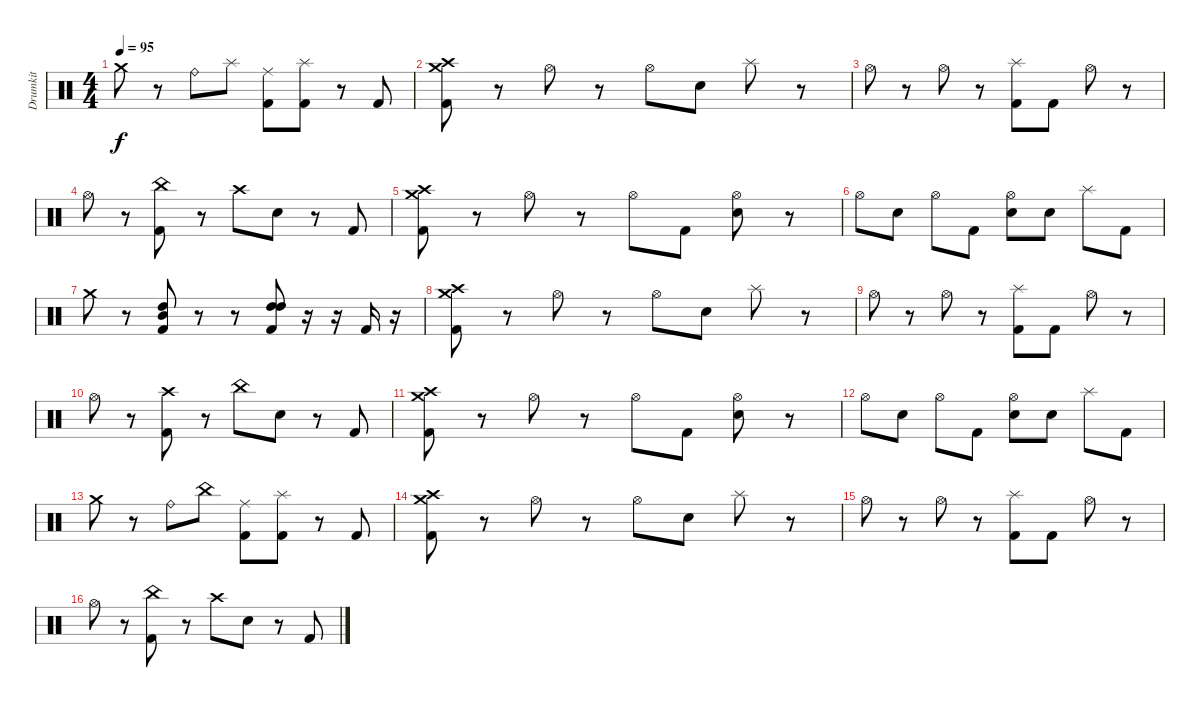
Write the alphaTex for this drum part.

\track ("Drumkit" "Drumkit") {instrument percussion}
\staff {score}
\articulation defaults
\ts (4 4)
\tempo 95
\clef neutral
\ks c "Crash medium (hit)".8{dy f}
r.8 "Ride (bell)".8 "Splash (hit)".8 ("Ride (middle)" "Kick (hit) 2").8 ("Splash (hit)" "Kick (hit) 2").8 r.8 "Kick (hit) 2".8 |
("Crash medium (hit)" "Crash high (hit)" "Kick (hit) 2").8 r.8 "Hi-Hat (open)".8 r.8 "Hi-Hat (open)".8 "Electric Snare (hit)".8 "Splash (hit)".8 r.8 |
"Hi-Hat (open)".8 r.8 "Hi-Hat (open)".8 r.8 ("Splash (hit)" "Kick (hit) 2").8 "Kick (hit) 2".8 "Hi-Hat (open)".8 r.8 |
"Hi-Hat (open)".8 r.8 ("China (hit)" "Kick (hit) 2").8 r.8 "Crash high (hit)".8 "Electric Snare (hit)".8 r.8 "Kick (hit) 2".8 |
("Crash high (hit)" "Crash medium (hit)" "Kick (hit) 2").8 r.8 "Hi-Hat (open)".8 r.8 "Hi-Hat (open)".8 "Kick (hit) 2".8 ("Hi-Hat (open)" "Electric Snare (hit)").8 r.8 |
"Hi-Hat (open)".8 "Electric Snare (hit)".8 "Hi-Hat (open)".8 "Kick (hit) 2".8 ("Hi-Hat (open)" "Electric Snare (hit)").8 "Electric Snare (hit)".8 "Splash (hit)".8 "Kick (hit) 2".8 |
"Crash medium (hit)".8 r.8 ("Mid Tom (hit)" "High Tom (hit)" "Kick (hit) 2").8 r.8 r.8 ("High Tom (hit)" "High Tom (hit)" "Kick (hit) 2").8 r.16 r.16 "Kick (hit) 2".16 r.16 |
("Crash medium (hit)" "Crash high (hit)" "Kick (hit) 2").8 r.8 "Hi-Hat (open)".8 r.8 "Hi-Hat (open)".8 "Electric Snare (hit)".8 "Splash (hit)".8 r.8 |
"Hi-Hat (open)".8 r.8 "Hi-Hat (open)".8 r.8 ("Splash (hit)" "Kick (hit) 2").8 "Kick (hit) 2".8 "Hi-Hat (open)".8 r.8 |
"Hi-Hat (open)".8 r.8 ("Crash high (hit)" "Kick (hit) 2").8 r.8 "China (hit)".8 "Electric Snare (hit)".8 r.8 "Kick (hit) 2".8 |
("Crash high (hit)" "Crash medium (hit)" "Kick (hit) 2").8 r.8 "Hi-Hat (open)".8 r.8 "Hi-Hat (open)".8 "Kick (hit) 2".8 ("Hi-Hat (open)" "Electric Snare (hit)").8 r.8 |
"Hi-Hat (open)".8 "Electric Snare (hit)".8 "Hi-Hat (open)".8 "Kick (hit) 2".8 ("Hi-Hat (open)" "Electric Snare (hit)").8 "Electric Snare (hit)".8 "Splash (hit)".8 "Kick (hit) 2".8 |
"Crash medium (hit)".8 r.8 "Ride (bell)".8 "China (hit)".8 ("Ride (middle)" "Kick (hit) 2").8 ("Splash (hit)" "Kick (hit) 2").8 r.8 "Kick (hit) 2".8 |
("Crash medium (hit)" "Crash high (hit)" "Kick (hit) 2").8 r.8 "Hi-Hat (open)".8 r.8 "Hi-Hat (open)".8 "Electric Snare (hit)".8 "Splash (hit)".8 r.8 |
"Hi-Hat (open)".8 r.8 "Hi-Hat (open)".8 r.8 ("Splash (hit)" "Kick (hit) 2").8 "Kick (hit) 2".8 "Hi-Hat (open)".8 r.8 |
"Hi-Hat (open)".8 r.8 ("China (hit)" "Kick (hit) 2").8 r.8 "Crash high (hit)".8 "Electric Snare (hit)".8 r.8 "Kick (hit) 2".8
